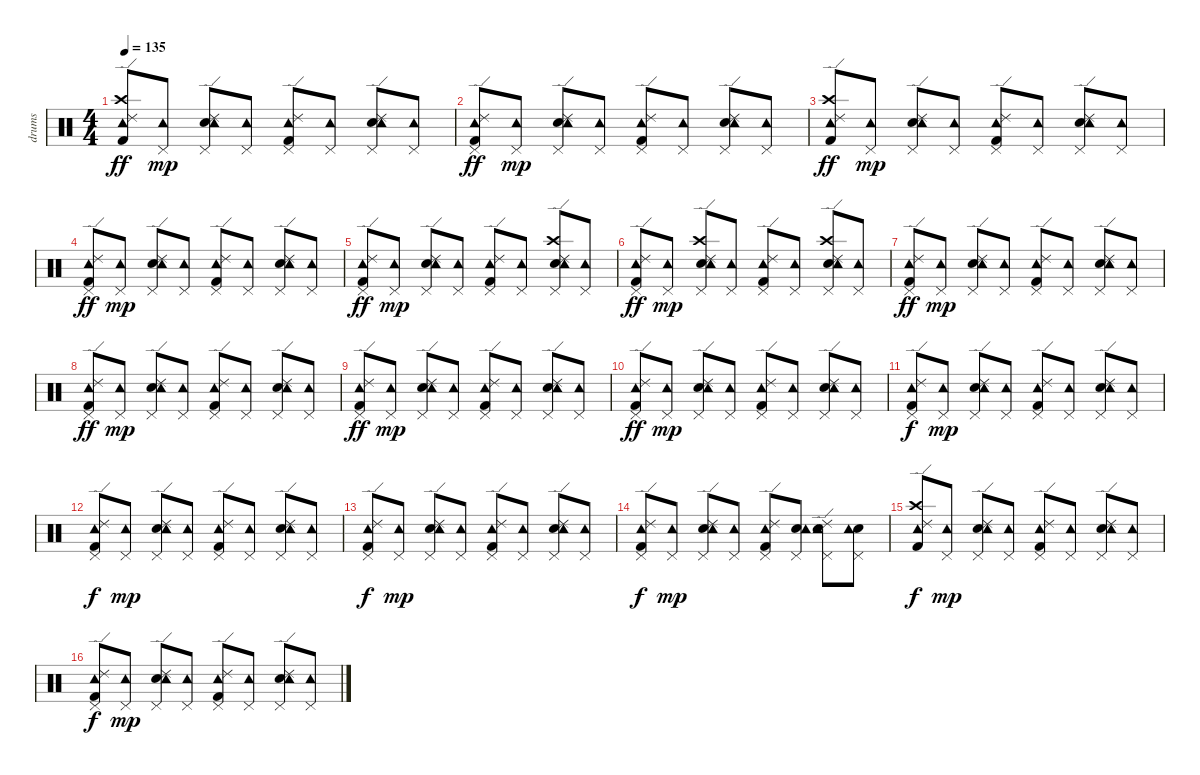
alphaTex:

\track ("drums" "drums") {instrument percussion}
\staff {score}
\articulation defaults
\ts (4 4)
\tempo 135
\clef neutral
\ks c
("Ride (edge) 2" "Kick (hit) 2" "Crash high (hit)" "Tambourine (hit)").8{dy ff} ("Pedal Hi-Hat (hit)" "Tambourine (hit)").8{dy mp} ("Electric Snare (hit)" "Ride (edge) 2" "Pedal Hi-Hat (hit)" "Tambourine (hit)").8 ("Pedal Hi-Hat (hit)" "Tambourine (hit)").8 ("Ride (edge) 2" "Kick (hit) 2" "Pedal Hi-Hat (hit)" "Tambourine (hit)").8 ("Pedal Hi-Hat (hit)" "Tambourine (hit)").8 ("Electric Snare (hit)" "Ride (edge) 2" "Pedal Hi-Hat (hit)" "Tambourine (hit)").8 ("Pedal Hi-Hat (hit)" "Tambourine (hit)").8 |
("Ride (edge) 2" "Kick (hit) 2" "Pedal Hi-Hat (hit)" "Tambourine (hit)").8{dy ff} ("Pedal Hi-Hat (hit)" "Tambourine (hit)").8{dy mp} ("Electric Snare (hit)" "Ride (edge) 2" "Pedal Hi-Hat (hit)" "Tambourine (hit)").8 ("Pedal Hi-Hat (hit)" "Tambourine (hit)").8 ("Ride (edge) 2" "Kick (hit) 2" "Pedal Hi-Hat (hit)" "Tambourine (hit)").8 ("Pedal Hi-Hat (hit)" "Tambourine (hit)").8 ("Electric Snare (hit)" "Ride (edge) 2" "Pedal Hi-Hat (hit)" "Tambourine (hit)").8 ("Pedal Hi-Hat (hit)" "Tambourine (hit)").8 |
("Ride (edge) 2" "Kick (hit) 2" "Crash high (hit)" "Tambourine (hit)").8{dy ff} ("Pedal Hi-Hat (hit)" "Tambourine (hit)").8{dy mp} ("Electric Snare (hit)" "Ride (edge) 2" "Pedal Hi-Hat (hit)" "Tambourine (hit)").8 ("Pedal Hi-Hat (hit)" "Tambourine (hit)").8 ("Ride (edge) 2" "Kick (hit) 2" "Pedal Hi-Hat (hit)" "Tambourine (hit)").8 ("Pedal Hi-Hat (hit)" "Tambourine (hit)").8 ("Electric Snare (hit)" "Ride (edge) 2" "Pedal Hi-Hat (hit)" "Tambourine (hit)").8 ("Pedal Hi-Hat (hit)" "Tambourine (hit)").8 |
("Ride (edge) 2" "Kick (hit) 2" "Pedal Hi-Hat (hit)" "Tambourine (hit)").8{dy ff} ("Pedal Hi-Hat (hit)" "Tambourine (hit)").8{dy mp} ("Electric Snare (hit)" "Ride (edge) 2" "Pedal Hi-Hat (hit)" "Tambourine (hit)").8 ("Pedal Hi-Hat (hit)" "Tambourine (hit)").8 ("Ride (edge) 2" "Kick (hit) 2" "Pedal Hi-Hat (hit)" "Tambourine (hit)").8 ("Pedal Hi-Hat (hit)" "Tambourine (hit)").8 ("Electric Snare (hit)" "Ride (edge) 2" "Pedal Hi-Hat (hit)" "Tambourine (hit)").8 ("Pedal Hi-Hat (hit)" "Tambourine (hit)").8 |
("Ride (edge) 2" "Kick (hit) 2" "Pedal Hi-Hat (hit)" "Tambourine (hit)").8{dy ff} ("Pedal Hi-Hat (hit)" "Tambourine (hit)").8{dy mp} ("Electric Snare (hit)" "Ride (edge) 2" "Pedal Hi-Hat (hit)" "Tambourine (hit)").8 ("Pedal Hi-Hat (hit)" "Tambourine (hit)").8 ("Ride (edge) 2" "Kick (hit) 2" "Pedal Hi-Hat (hit)" "Tambourine (hit)").8 ("Pedal Hi-Hat (hit)" "Tambourine (hit)").8 ("Electric Snare (hit)" "Ride (edge) 2" "Crash high (hit)" "Pedal Hi-Hat (hit)" "Tambourine (hit)").8 ("Pedal Hi-Hat (hit)" "Tambourine (hit)").8 |
("Ride (edge) 2" "Kick (hit) 2" "Pedal Hi-Hat (hit)" "Tambourine (hit)").8{dy ff} ("Pedal Hi-Hat (hit)" "Tambourine (hit)").8{dy mp} ("Electric Snare (hit)" "Ride (edge) 2" "Crash high (hit)" "Pedal Hi-Hat (hit)" "Tambourine (hit)").8 ("Pedal Hi-Hat (hit)" "Tambourine (hit)").8 ("Ride (edge) 2" "Kick (hit) 2" "Pedal Hi-Hat (hit)" "Tambourine (hit)").8 ("Pedal Hi-Hat (hit)" "Tambourine (hit)").8 ("Electric Snare (hit)" "Ride (edge) 2" "Crash high (hit)" "Pedal Hi-Hat (hit)" "Tambourine (hit)").8 ("Pedal Hi-Hat (hit)" "Tambourine (hit)").8 |
("Ride (edge) 2" "Kick (hit) 2" "Pedal Hi-Hat (hit)" "Tambourine (hit)").8{dy ff} ("Pedal Hi-Hat (hit)" "Tambourine (hit)").8{dy mp} ("Electric Snare (hit)" "Ride (edge) 2" "Pedal Hi-Hat (hit)" "Tambourine (hit)").8 ("Pedal Hi-Hat (hit)" "Tambourine (hit)").8 ("Ride (edge) 2" "Kick (hit) 2" "Pedal Hi-Hat (hit)" "Tambourine (hit)").8 ("Pedal Hi-Hat (hit)" "Tambourine (hit)").8 ("Electric Snare (hit)" "Ride (edge) 2" "Pedal Hi-Hat (hit)" "Tambourine (hit)").8 ("Pedal Hi-Hat (hit)" "Tambourine (hit)").8 |
("Ride (edge) 2" "Kick (hit) 2" "Pedal Hi-Hat (hit)" "Tambourine (hit)").8{dy ff} ("Pedal Hi-Hat (hit)" "Tambourine (hit)").8{dy mp} ("Electric Snare (hit)" "Ride (edge) 2" "Pedal Hi-Hat (hit)" "Tambourine (hit)").8 ("Pedal Hi-Hat (hit)" "Tambourine (hit)").8 ("Ride (edge) 2" "Kick (hit) 2" "Pedal Hi-Hat (hit)" "Tambourine (hit)").8 ("Pedal Hi-Hat (hit)" "Tambourine (hit)").8 ("Electric Snare (hit)" "Ride (edge) 2" "Pedal Hi-Hat (hit)" "Tambourine (hit)").8 ("Pedal Hi-Hat (hit)" "Tambourine (hit)").8 |
("Ride (edge) 2" "Kick (hit) 2" "Pedal Hi-Hat (hit)" "Tambourine (hit)").8{dy ff} ("Pedal Hi-Hat (hit)" "Tambourine (hit)").8{dy mp} ("Electric Snare (hit)" "Ride (edge) 2" "Pedal Hi-Hat (hit)" "Tambourine (hit)").8 ("Pedal Hi-Hat (hit)" "Tambourine (hit)").8 ("Ride (edge) 2" "Kick (hit) 2" "Pedal Hi-Hat (hit)" "Tambourine (hit)").8 ("Pedal Hi-Hat (hit)" "Tambourine (hit)").8 ("Electric Snare (hit)" "Ride (edge) 2" "Pedal Hi-Hat (hit)" "Tambourine (hit)").8 ("Pedal Hi-Hat (hit)" "Tambourine (hit)").8 |
("Ride (edge) 2" "Kick (hit) 2" "Pedal Hi-Hat (hit)" "Tambourine (hit)").8{dy ff} ("Pedal Hi-Hat (hit)" "Tambourine (hit)").8{dy mp} ("Electric Snare (hit)" "Ride (edge) 2" "Pedal Hi-Hat (hit)" "Tambourine (hit)").8 ("Pedal Hi-Hat (hit)" "Tambourine (hit)").8 ("Ride (edge) 2" "Kick (hit) 2" "Pedal Hi-Hat (hit)" "Tambourine (hit)").8 ("Pedal Hi-Hat (hit)" "Tambourine (hit)").8 ("Electric Snare (hit)" "Ride (edge) 2" "Pedal Hi-Hat (hit)" "Tambourine (hit)").8 ("Pedal Hi-Hat (hit)" "Tambourine (hit)").8 |
("Ride (edge) 2" "Kick (hit) 2" "Pedal Hi-Hat (hit)" "Tambourine (hit)").8{dy f volume 9} ("Pedal Hi-Hat (hit)" "Tambourine (hit)").8{dy mp} ("Electric Snare (hit)" "Ride (edge) 2" "Pedal Hi-Hat (hit)" "Tambourine (hit)").8 ("Pedal Hi-Hat (hit)" "Tambourine (hit)").8 ("Ride (edge) 2" "Kick (hit) 2" "Pedal Hi-Hat (hit)" "Tambourine (hit)").8 ("Pedal Hi-Hat (hit)" "Tambourine (hit)").8 ("Electric Snare (hit)" "Ride (edge) 2" "Pedal Hi-Hat (hit)" "Tambourine (hit)").8 ("Pedal Hi-Hat (hit)" "Tambourine (hit)").8 |
("Ride (edge) 2" "Kick (hit) 2" "Pedal Hi-Hat (hit)" "Tambourine (hit)").8{dy f} ("Pedal Hi-Hat (hit)" "Tambourine (hit)").8{dy mp} ("Electric Snare (hit)" "Ride (edge) 2" "Pedal Hi-Hat (hit)" "Tambourine (hit)").8 ("Pedal Hi-Hat (hit)" "Tambourine (hit)").8 ("Ride (edge) 2" "Kick (hit) 2" "Pedal Hi-Hat (hit)" "Tambourine (hit)").8 ("Pedal Hi-Hat (hit)" "Tambourine (hit)").8 ("Electric Snare (hit)" "Ride (edge) 2" "Pedal Hi-Hat (hit)" "Tambourine (hit)").8 ("Pedal Hi-Hat (hit)" "Tambourine (hit)").8 |
("Ride (edge) 2" "Kick (hit) 2" "Pedal Hi-Hat (hit)" "Tambourine (hit)").8{dy f} ("Pedal Hi-Hat (hit)" "Tambourine (hit)").8{dy mp} ("Electric Snare (hit)" "Ride (edge) 2" "Pedal Hi-Hat (hit)" "Tambourine (hit)").8 ("Pedal Hi-Hat (hit)" "Tambourine (hit)").8 ("Ride (edge) 2" "Kick (hit) 2" "Pedal Hi-Hat (hit)" "Tambourine (hit)").8 ("Pedal Hi-Hat (hit)" "Tambourine (hit)").8 ("Electric Snare (hit)" "Ride (edge) 2" "Pedal Hi-Hat (hit)" "Tambourine (hit)").8 ("Pedal Hi-Hat (hit)" "Tambourine (hit)").8 |
("Ride (edge) 2" "Kick (hit) 2" "Pedal Hi-Hat (hit)" "Tambourine (hit)").8{dy f} ("Pedal Hi-Hat (hit)" "Tambourine (hit)").8{dy mp} ("Electric Snare (hit)" "Ride (edge) 2" "Pedal Hi-Hat (hit)" "Tambourine (hit)").8 ("Pedal Hi-Hat (hit)" "Tambourine (hit)").8 ("Ride (edge) 2" "Kick (hit) 2" "Pedal Hi-Hat (hit)" "Tambourine (hit)").8 ("Electric Snare (hit)" "Pedal Hi-Hat (hit)" "Tambourine (hit)").8 ("Electric Snare (hit)" "Ride (edge) 2" "Pedal Hi-Hat (hit)" "Tambourine (hit)").8 ("Electric Snare (hit)" "Pedal Hi-Hat (hit)" "Tambourine (hit)").8 |
("Ride (edge) 2" "Kick (hit) 2" "Crash high (hit)" "Tambourine (hit)").8{dy f volume 6} ("Pedal Hi-Hat (hit)" "Tambourine (hit)").8{dy mp} ("Electric Snare (hit)" "Ride (edge) 2" "Pedal Hi-Hat (hit)" "Tambourine (hit)").8 ("Pedal Hi-Hat (hit)" "Tambourine (hit)").8 ("Ride (edge) 2" "Kick (hit) 2" "Pedal Hi-Hat (hit)" "Tambourine (hit)").8 ("Pedal Hi-Hat (hit)" "Tambourine (hit)").8 ("Electric Snare (hit)" "Ride (edge) 2" "Pedal Hi-Hat (hit)" "Tambourine (hit)").8 ("Pedal Hi-Hat (hit)" "Tambourine (hit)").8 |
("Ride (edge) 2" "Kick (hit) 2" "Pedal Hi-Hat (hit)" "Tambourine (hit)").8{dy f} ("Pedal Hi-Hat (hit)" "Tambourine (hit)").8{dy mp} ("Electric Snare (hit)" "Ride (edge) 2" "Pedal Hi-Hat (hit)" "Tambourine (hit)").8 ("Pedal Hi-Hat (hit)" "Tambourine (hit)").8 ("Ride (edge) 2" "Kick (hit) 2" "Pedal Hi-Hat (hit)" "Tambourine (hit)").8 ("Pedal Hi-Hat (hit)" "Tambourine (hit)").8 ("Electric Snare (hit)" "Ride (edge) 2" "Pedal Hi-Hat (hit)" "Tambourine (hit)").8 ("Pedal Hi-Hat (hit)" "Tambourine (hit)").8
